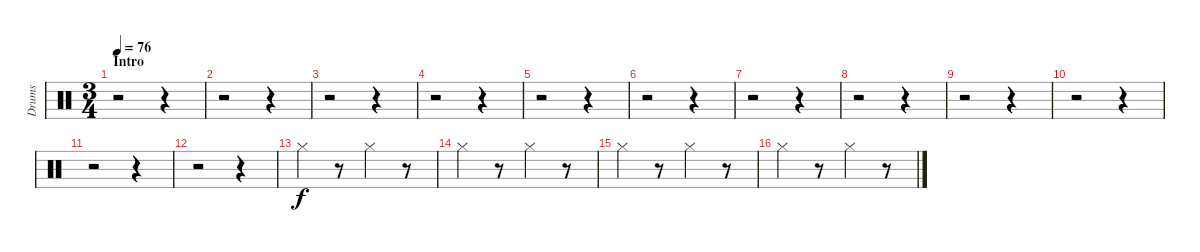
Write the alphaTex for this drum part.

\track ("Drums" "Drums") {instrument percussion}
\staff {score}
\articulation defaults
\ts (3 4)
\section ("" "Intro")
\tempo 76
\clef neutral
\ks c
r.2{dy f} r.4 |
r.2 r.4 |
r.2 r.4 |
r.2 r.4 |
r.2 r.4 |
r.2 r.4 |
r.2 r.4 |
r.2 r.4 |
r.2 r.4 |
r.2 r.4 |
r.2 r.4 |
r.2 r.4 |
"Hi-Hat (closed)".4 r.8 "Hi-Hat (closed)".4 r.8 |
"Hi-Hat (closed)".4 r.8 "Hi-Hat (closed)".4 r.8 |
"Hi-Hat (closed)".4 r.8 "Hi-Hat (closed)".4 r.8 |
"Hi-Hat (closed)".4 r.8 "Hi-Hat (closed)".4 r.8
